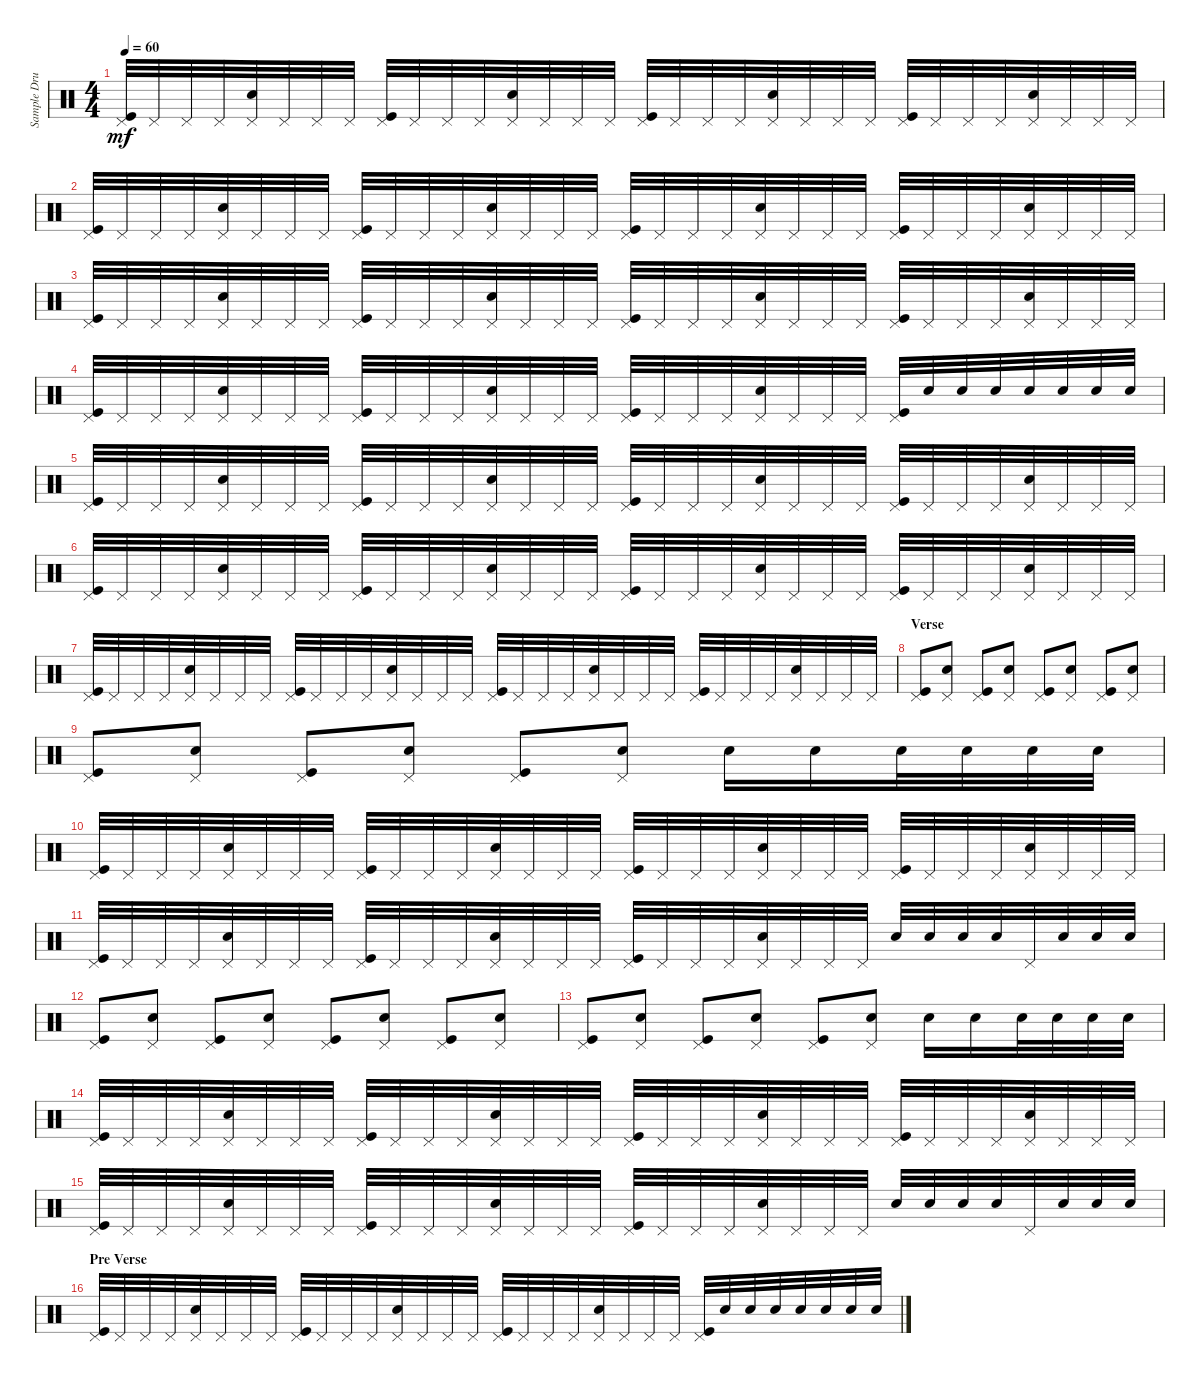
\track ("Sample Drums" "Sample Dru") {instrument percussion}
\staff {score}
\articulation defaults
\ts (4 4)
\tempo 60
\clef neutral
\ks c
("Pedal Hi-Hat (hit)" "Kick (hit)").32{dy mf} "Pedal Hi-Hat (hit)".32 "Pedal Hi-Hat (hit)".32 "Pedal Hi-Hat (hit)".32 ("Pedal Hi-Hat (hit)" "Snare (hit) 2").32 "Pedal Hi-Hat (hit)".32 "Pedal Hi-Hat (hit)".32 "Pedal Hi-Hat (hit)".32 ("Pedal Hi-Hat (hit)" "Kick (hit)").32 "Pedal Hi-Hat (hit)".32 "Pedal Hi-Hat (hit)".32 "Pedal Hi-Hat (hit)".32 ("Pedal Hi-Hat (hit)" "Snare (hit) 2").32 "Pedal Hi-Hat (hit)".32 "Pedal Hi-Hat (hit)".32 "Pedal Hi-Hat (hit)".32 ("Pedal Hi-Hat (hit)" "Kick (hit)").32 "Pedal Hi-Hat (hit)".32 "Pedal Hi-Hat (hit)".32 "Pedal Hi-Hat (hit)".32 ("Pedal Hi-Hat (hit)" "Snare (hit) 2").32 "Pedal Hi-Hat (hit)".32 "Pedal Hi-Hat (hit)".32 "Pedal Hi-Hat (hit)".32 ("Pedal Hi-Hat (hit)" "Kick (hit)").32 "Pedal Hi-Hat (hit)".32 "Pedal Hi-Hat (hit)".32 "Pedal Hi-Hat (hit)".32 ("Pedal Hi-Hat (hit)" "Snare (hit) 2").32 "Pedal Hi-Hat (hit)".32 "Pedal Hi-Hat (hit)".32 "Pedal Hi-Hat (hit)".32 |
("Pedal Hi-Hat (hit)" "Kick (hit)").32 "Pedal Hi-Hat (hit)".32 "Pedal Hi-Hat (hit)".32 "Pedal Hi-Hat (hit)".32 ("Pedal Hi-Hat (hit)" "Snare (hit) 2").32 "Pedal Hi-Hat (hit)".32 "Pedal Hi-Hat (hit)".32 "Pedal Hi-Hat (hit)".32 ("Pedal Hi-Hat (hit)" "Kick (hit)").32 "Pedal Hi-Hat (hit)".32 "Pedal Hi-Hat (hit)".32 "Pedal Hi-Hat (hit)".32 ("Pedal Hi-Hat (hit)" "Snare (hit) 2").32 "Pedal Hi-Hat (hit)".32 "Pedal Hi-Hat (hit)".32 "Pedal Hi-Hat (hit)".32 ("Pedal Hi-Hat (hit)" "Kick (hit)").32 "Pedal Hi-Hat (hit)".32 "Pedal Hi-Hat (hit)".32 "Pedal Hi-Hat (hit)".32 ("Pedal Hi-Hat (hit)" "Snare (hit) 2").32 "Pedal Hi-Hat (hit)".32 "Pedal Hi-Hat (hit)".32 "Pedal Hi-Hat (hit)".32 ("Pedal Hi-Hat (hit)" "Kick (hit)").32 "Pedal Hi-Hat (hit)".32 "Pedal Hi-Hat (hit)".32 "Pedal Hi-Hat (hit)".32 ("Pedal Hi-Hat (hit)" "Snare (hit) 2").32 "Pedal Hi-Hat (hit)".32 "Pedal Hi-Hat (hit)".32 "Pedal Hi-Hat (hit)".32 |
("Pedal Hi-Hat (hit)" "Kick (hit)").32 "Pedal Hi-Hat (hit)".32 "Pedal Hi-Hat (hit)".32 "Pedal Hi-Hat (hit)".32 ("Pedal Hi-Hat (hit)" "Snare (hit) 2").32 "Pedal Hi-Hat (hit)".32 "Pedal Hi-Hat (hit)".32 "Pedal Hi-Hat (hit)".32 ("Pedal Hi-Hat (hit)" "Kick (hit)").32 "Pedal Hi-Hat (hit)".32 "Pedal Hi-Hat (hit)".32 "Pedal Hi-Hat (hit)".32 ("Pedal Hi-Hat (hit)" "Snare (hit) 2").32 "Pedal Hi-Hat (hit)".32 "Pedal Hi-Hat (hit)".32 "Pedal Hi-Hat (hit)".32 ("Pedal Hi-Hat (hit)" "Kick (hit)").32 "Pedal Hi-Hat (hit)".32 "Pedal Hi-Hat (hit)".32 "Pedal Hi-Hat (hit)".32 ("Pedal Hi-Hat (hit)" "Snare (hit) 2").32 "Pedal Hi-Hat (hit)".32 "Pedal Hi-Hat (hit)".32 "Pedal Hi-Hat (hit)".32 ("Pedal Hi-Hat (hit)" "Kick (hit)").32 "Pedal Hi-Hat (hit)".32 "Pedal Hi-Hat (hit)".32 "Pedal Hi-Hat (hit)".32 ("Pedal Hi-Hat (hit)" "Snare (hit) 2").32 "Pedal Hi-Hat (hit)".32 "Pedal Hi-Hat (hit)".32 "Pedal Hi-Hat (hit)".32 |
("Pedal Hi-Hat (hit)" "Kick (hit)").32 "Pedal Hi-Hat (hit)".32 "Pedal Hi-Hat (hit)".32 "Pedal Hi-Hat (hit)".32 ("Pedal Hi-Hat (hit)" "Snare (hit) 2").32 "Pedal Hi-Hat (hit)".32 "Pedal Hi-Hat (hit)".32 "Pedal Hi-Hat (hit)".32 ("Pedal Hi-Hat (hit)" "Kick (hit)").32 "Pedal Hi-Hat (hit)".32 "Pedal Hi-Hat (hit)".32 "Pedal Hi-Hat (hit)".32 ("Pedal Hi-Hat (hit)" "Snare (hit) 2").32 "Pedal Hi-Hat (hit)".32 "Pedal Hi-Hat (hit)".32 "Pedal Hi-Hat (hit)".32 ("Pedal Hi-Hat (hit)" "Kick (hit)").32 "Pedal Hi-Hat (hit)".32 "Pedal Hi-Hat (hit)".32 "Pedal Hi-Hat (hit)".32 ("Pedal Hi-Hat (hit)" "Snare (hit) 2").32 "Pedal Hi-Hat (hit)".32 "Pedal Hi-Hat (hit)".32 "Pedal Hi-Hat (hit)".32 ("Pedal Hi-Hat (hit)" "Kick (hit)").32 "Snare (hit) 2".32 "Snare (hit) 2".32 "Snare (hit) 2".32 "Snare (hit) 2".32 "Snare (hit) 2".32 "Snare (hit) 2".32 "Snare (hit) 2".32 |
("Pedal Hi-Hat (hit)" "Kick (hit)").32 "Pedal Hi-Hat (hit)".32 "Pedal Hi-Hat (hit)".32 "Pedal Hi-Hat (hit)".32 ("Pedal Hi-Hat (hit)" "Snare (hit) 2").32 "Pedal Hi-Hat (hit)".32 "Pedal Hi-Hat (hit)".32 "Pedal Hi-Hat (hit)".32 ("Pedal Hi-Hat (hit)" "Kick (hit)").32 "Pedal Hi-Hat (hit)".32 "Pedal Hi-Hat (hit)".32 "Pedal Hi-Hat (hit)".32 ("Pedal Hi-Hat (hit)" "Snare (hit) 2").32 "Pedal Hi-Hat (hit)".32 "Pedal Hi-Hat (hit)".32 "Pedal Hi-Hat (hit)".32 ("Pedal Hi-Hat (hit)" "Kick (hit)").32 "Pedal Hi-Hat (hit)".32 "Pedal Hi-Hat (hit)".32 "Pedal Hi-Hat (hit)".32 ("Pedal Hi-Hat (hit)" "Snare (hit) 2").32 "Pedal Hi-Hat (hit)".32 "Pedal Hi-Hat (hit)".32 "Pedal Hi-Hat (hit)".32 ("Pedal Hi-Hat (hit)" "Kick (hit)").32 "Pedal Hi-Hat (hit)".32 "Pedal Hi-Hat (hit)".32 "Pedal Hi-Hat (hit)".32 ("Pedal Hi-Hat (hit)" "Snare (hit) 2").32 "Pedal Hi-Hat (hit)".32 "Pedal Hi-Hat (hit)".32 "Pedal Hi-Hat (hit)".32 |
("Pedal Hi-Hat (hit)" "Kick (hit)").32 "Pedal Hi-Hat (hit)".32 "Pedal Hi-Hat (hit)".32 "Pedal Hi-Hat (hit)".32 ("Pedal Hi-Hat (hit)" "Snare (hit) 2").32 "Pedal Hi-Hat (hit)".32 "Pedal Hi-Hat (hit)".32 "Pedal Hi-Hat (hit)".32 ("Pedal Hi-Hat (hit)" "Kick (hit)").32 "Pedal Hi-Hat (hit)".32 "Pedal Hi-Hat (hit)".32 "Pedal Hi-Hat (hit)".32 ("Pedal Hi-Hat (hit)" "Snare (hit) 2").32 "Pedal Hi-Hat (hit)".32 "Pedal Hi-Hat (hit)".32 "Pedal Hi-Hat (hit)".32 ("Pedal Hi-Hat (hit)" "Kick (hit)").32 "Pedal Hi-Hat (hit)".32 "Pedal Hi-Hat (hit)".32 "Pedal Hi-Hat (hit)".32 ("Pedal Hi-Hat (hit)" "Snare (hit) 2").32 "Pedal Hi-Hat (hit)".32 "Pedal Hi-Hat (hit)".32 "Pedal Hi-Hat (hit)".32 ("Pedal Hi-Hat (hit)" "Kick (hit)").32 "Pedal Hi-Hat (hit)".32 "Pedal Hi-Hat (hit)".32 "Pedal Hi-Hat (hit)".32 ("Pedal Hi-Hat (hit)" "Snare (hit) 2").32 "Pedal Hi-Hat (hit)".32 "Pedal Hi-Hat (hit)".32 "Pedal Hi-Hat (hit)".32 |
("Pedal Hi-Hat (hit)" "Kick (hit)").32 "Pedal Hi-Hat (hit)".32 "Pedal Hi-Hat (hit)".32 "Pedal Hi-Hat (hit)".32 ("Pedal Hi-Hat (hit)" "Snare (hit) 2").32 "Pedal Hi-Hat (hit)".32 "Pedal Hi-Hat (hit)".32 "Pedal Hi-Hat (hit)".32 ("Pedal Hi-Hat (hit)" "Kick (hit)").32 "Pedal Hi-Hat (hit)".32 "Pedal Hi-Hat (hit)".32 "Pedal Hi-Hat (hit)".32 ("Pedal Hi-Hat (hit)" "Snare (hit) 2").32 "Pedal Hi-Hat (hit)".32 "Pedal Hi-Hat (hit)".32 "Pedal Hi-Hat (hit)".32 ("Pedal Hi-Hat (hit)" "Kick (hit)").32 "Pedal Hi-Hat (hit)".32 "Pedal Hi-Hat (hit)".32 "Pedal Hi-Hat (hit)".32 ("Pedal Hi-Hat (hit)" "Snare (hit) 2").32 "Pedal Hi-Hat (hit)".32 "Pedal Hi-Hat (hit)".32 "Pedal Hi-Hat (hit)".32 ("Pedal Hi-Hat (hit)" "Kick (hit)").32 "Pedal Hi-Hat (hit)".32 "Pedal Hi-Hat (hit)".32 "Pedal Hi-Hat (hit)".32 ("Pedal Hi-Hat (hit)" "Snare (hit) 2").32 "Pedal Hi-Hat (hit)".32 "Pedal Hi-Hat (hit)".32 "Pedal Hi-Hat (hit)".32 |
\section ("" "Verse")
("Pedal Hi-Hat (hit)" "Kick (hit)").8 ("Snare (hit) 2" "Pedal Hi-Hat (hit)").8 ("Pedal Hi-Hat (hit)" "Kick (hit)").8 ("Snare (hit) 2" "Pedal Hi-Hat (hit)").8 ("Kick (hit)" "Pedal Hi-Hat (hit)").8 ("Snare (hit) 2" "Pedal Hi-Hat (hit)").8 ("Kick (hit)" "Pedal Hi-Hat (hit)").8 ("Snare (hit) 2" "Pedal Hi-Hat (hit)").8 |
("Pedal Hi-Hat (hit)" "Kick (hit)").8 ("Snare (hit) 2" "Pedal Hi-Hat (hit)").8 ("Pedal Hi-Hat (hit)" "Kick (hit)").8 ("Snare (hit) 2" "Pedal Hi-Hat (hit)").8 ("Pedal Hi-Hat (hit)" "Kick (hit)").8 ("Snare (hit) 2" "Pedal Hi-Hat (hit)").8 "Snare (hit) 2".16 "Snare (hit) 2".16 "Snare (hit) 2".32 "Snare (hit) 2".32 "Snare (hit) 2".32 "Snare (hit) 2".32 |
("Pedal Hi-Hat (hit)" "Kick (hit)").32 "Pedal Hi-Hat (hit)".32 "Pedal Hi-Hat (hit)".32 "Pedal Hi-Hat (hit)".32 ("Pedal Hi-Hat (hit)" "Snare (hit) 2").32 "Pedal Hi-Hat (hit)".32 "Pedal Hi-Hat (hit)".32 "Pedal Hi-Hat (hit)".32 ("Pedal Hi-Hat (hit)" "Kick (hit)").32 "Pedal Hi-Hat (hit)".32 "Pedal Hi-Hat (hit)".32 "Pedal Hi-Hat (hit)".32 ("Pedal Hi-Hat (hit)" "Snare (hit) 2").32 "Pedal Hi-Hat (hit)".32 "Pedal Hi-Hat (hit)".32 "Pedal Hi-Hat (hit)".32 ("Pedal Hi-Hat (hit)" "Kick (hit)").32 "Pedal Hi-Hat (hit)".32 "Pedal Hi-Hat (hit)".32 "Pedal Hi-Hat (hit)".32 ("Pedal Hi-Hat (hit)" "Snare (hit) 2").32 "Pedal Hi-Hat (hit)".32 "Pedal Hi-Hat (hit)".32 "Pedal Hi-Hat (hit)".32 ("Pedal Hi-Hat (hit)" "Kick (hit)").32 "Pedal Hi-Hat (hit)".32 "Pedal Hi-Hat (hit)".32 "Pedal Hi-Hat (hit)".32 ("Pedal Hi-Hat (hit)" "Snare (hit) 2").32 "Pedal Hi-Hat (hit)".32 "Pedal Hi-Hat (hit)".32 "Pedal Hi-Hat (hit)".32 |
("Pedal Hi-Hat (hit)" "Kick (hit)").32 "Pedal Hi-Hat (hit)".32 "Pedal Hi-Hat (hit)".32 "Pedal Hi-Hat (hit)".32 ("Pedal Hi-Hat (hit)" "Snare (hit) 2").32 "Pedal Hi-Hat (hit)".32 "Pedal Hi-Hat (hit)".32 "Pedal Hi-Hat (hit)".32 ("Pedal Hi-Hat (hit)" "Kick (hit)").32 "Pedal Hi-Hat (hit)".32 "Pedal Hi-Hat (hit)".32 "Pedal Hi-Hat (hit)".32 ("Pedal Hi-Hat (hit)" "Snare (hit) 2").32 "Pedal Hi-Hat (hit)".32 "Pedal Hi-Hat (hit)".32 "Pedal Hi-Hat (hit)".32 ("Pedal Hi-Hat (hit)" "Kick (hit)").32 "Pedal Hi-Hat (hit)".32 "Pedal Hi-Hat (hit)".32 "Pedal Hi-Hat (hit)".32 ("Pedal Hi-Hat (hit)" "Snare (hit) 2").32 "Pedal Hi-Hat (hit)".32 "Pedal Hi-Hat (hit)".32 "Pedal Hi-Hat (hit)".32 "Snare (hit) 2".32 "Snare (hit) 2".32 "Snare (hit) 2".32 "Snare (hit) 2".32 "Pedal Hi-Hat (hit)".32 "Snare (hit) 2".32 "Snare (hit) 2".32 "Snare (hit) 2".32 |
("Pedal Hi-Hat (hit)" "Kick (hit)").8 ("Snare (hit) 2" "Pedal Hi-Hat (hit)").8 ("Pedal Hi-Hat (hit)" "Kick (hit)").8 ("Snare (hit) 2" "Pedal Hi-Hat (hit)").8 ("Kick (hit)" "Pedal Hi-Hat (hit)").8 ("Snare (hit) 2" "Pedal Hi-Hat (hit)").8 ("Kick (hit)" "Pedal Hi-Hat (hit)").8 ("Snare (hit) 2" "Pedal Hi-Hat (hit)").8 |
("Pedal Hi-Hat (hit)" "Kick (hit)").8 ("Snare (hit) 2" "Pedal Hi-Hat (hit)").8 ("Pedal Hi-Hat (hit)" "Kick (hit)").8 ("Snare (hit) 2" "Pedal Hi-Hat (hit)").8 ("Pedal Hi-Hat (hit)" "Kick (hit)").8 ("Snare (hit) 2" "Pedal Hi-Hat (hit)").8 "Snare (hit) 2".16 "Snare (hit) 2".16 "Snare (hit) 2".32 "Snare (hit) 2".32 "Snare (hit) 2".32 "Snare (hit) 2".32 |
("Pedal Hi-Hat (hit)" "Kick (hit)").32 "Pedal Hi-Hat (hit)".32 "Pedal Hi-Hat (hit)".32 "Pedal Hi-Hat (hit)".32 ("Pedal Hi-Hat (hit)" "Snare (hit) 2").32 "Pedal Hi-Hat (hit)".32 "Pedal Hi-Hat (hit)".32 "Pedal Hi-Hat (hit)".32 ("Pedal Hi-Hat (hit)" "Kick (hit)").32 "Pedal Hi-Hat (hit)".32 "Pedal Hi-Hat (hit)".32 "Pedal Hi-Hat (hit)".32 ("Pedal Hi-Hat (hit)" "Snare (hit) 2").32 "Pedal Hi-Hat (hit)".32 "Pedal Hi-Hat (hit)".32 "Pedal Hi-Hat (hit)".32 ("Pedal Hi-Hat (hit)" "Kick (hit)").32 "Pedal Hi-Hat (hit)".32 "Pedal Hi-Hat (hit)".32 "Pedal Hi-Hat (hit)".32 ("Pedal Hi-Hat (hit)" "Snare (hit) 2").32 "Pedal Hi-Hat (hit)".32 "Pedal Hi-Hat (hit)".32 "Pedal Hi-Hat (hit)".32 ("Pedal Hi-Hat (hit)" "Kick (hit)").32 "Pedal Hi-Hat (hit)".32 "Pedal Hi-Hat (hit)".32 "Pedal Hi-Hat (hit)".32 ("Pedal Hi-Hat (hit)" "Snare (hit) 2").32 "Pedal Hi-Hat (hit)".32 "Pedal Hi-Hat (hit)".32 "Pedal Hi-Hat (hit)".32 |
("Pedal Hi-Hat (hit)" "Kick (hit)").32 "Pedal Hi-Hat (hit)".32 "Pedal Hi-Hat (hit)".32 "Pedal Hi-Hat (hit)".32 ("Pedal Hi-Hat (hit)" "Snare (hit) 2").32 "Pedal Hi-Hat (hit)".32 "Pedal Hi-Hat (hit)".32 "Pedal Hi-Hat (hit)".32 ("Pedal Hi-Hat (hit)" "Kick (hit)").32 "Pedal Hi-Hat (hit)".32 "Pedal Hi-Hat (hit)".32 "Pedal Hi-Hat (hit)".32 ("Pedal Hi-Hat (hit)" "Snare (hit) 2").32 "Pedal Hi-Hat (hit)".32 "Pedal Hi-Hat (hit)".32 "Pedal Hi-Hat (hit)".32 ("Pedal Hi-Hat (hit)" "Kick (hit)").32 "Pedal Hi-Hat (hit)".32 "Pedal Hi-Hat (hit)".32 "Pedal Hi-Hat (hit)".32 ("Pedal Hi-Hat (hit)" "Snare (hit) 2").32 "Pedal Hi-Hat (hit)".32 "Pedal Hi-Hat (hit)".32 "Pedal Hi-Hat (hit)".32 "Snare (hit) 2".32 "Snare (hit) 2".32 "Snare (hit) 2".32 "Snare (hit) 2".32 "Pedal Hi-Hat (hit)".32 "Snare (hit) 2".32 "Snare (hit) 2".32 "Snare (hit) 2".32 |
\section ("" "Pre Verse")
("Pedal Hi-Hat (hit)" "Kick (hit)").32 "Pedal Hi-Hat (hit)".32 "Pedal Hi-Hat (hit)".32 "Pedal Hi-Hat (hit)".32 ("Pedal Hi-Hat (hit)" "Snare (hit) 2").32 "Pedal Hi-Hat (hit)".32 "Pedal Hi-Hat (hit)".32 "Pedal Hi-Hat (hit)".32 ("Pedal Hi-Hat (hit)" "Kick (hit)").32 "Pedal Hi-Hat (hit)".32 "Pedal Hi-Hat (hit)".32 "Pedal Hi-Hat (hit)".32 ("Pedal Hi-Hat (hit)" "Snare (hit) 2").32 "Pedal Hi-Hat (hit)".32 "Pedal Hi-Hat (hit)".32 "Pedal Hi-Hat (hit)".32 ("Pedal Hi-Hat (hit)" "Kick (hit)").32 "Pedal Hi-Hat (hit)".32 "Pedal Hi-Hat (hit)".32 "Pedal Hi-Hat (hit)".32 ("Pedal Hi-Hat (hit)" "Snare (hit) 2").32 "Pedal Hi-Hat (hit)".32 "Pedal Hi-Hat (hit)".32 "Pedal Hi-Hat (hit)".32 ("Pedal Hi-Hat (hit)" "Kick (hit)").32 "Snare (hit) 2".32 "Snare (hit) 2".32 "Snare (hit) 2".32 "Snare (hit) 2".32 "Snare (hit) 2".32 "Snare (hit) 2".32 "Snare (hit) 2".32
